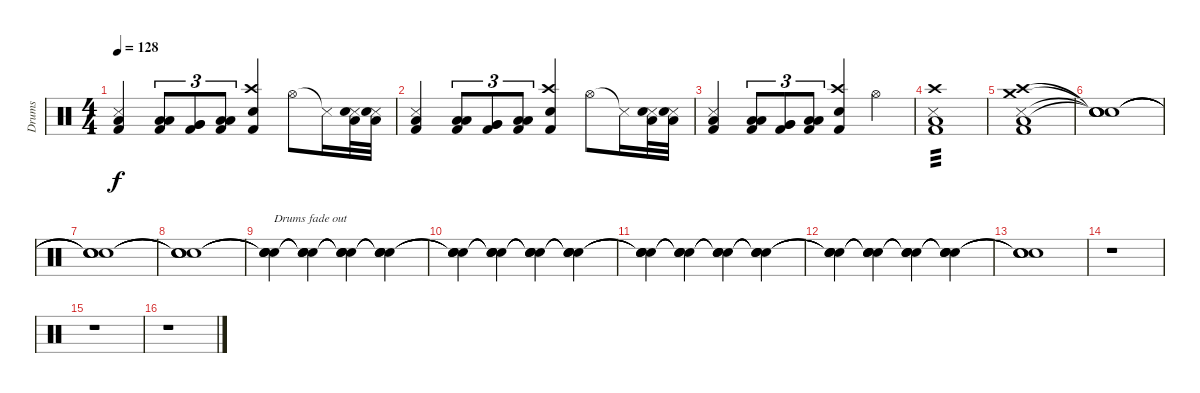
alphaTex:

\track ("Drums" "Drums") {instrument percussion}
\staff {score}
\articulation defaults
\ts (4 4)
\tempo 128
\clef neutral
\ks c
("Snare (side stick) 3" "Low Floor Tom (hit)" "Kick (hit) 2").4{dy f} ("Low Tom (hit)" "Low Tom (hit)" "Kick (hit) 2").8{tu (3 2)} ("Very Low Tom (hit)" "Very Low Tom (hit)" "Kick (hit) 2").8{tu (3 2)} ("Low Floor Tom (hit)" "Low Floor Tom (hit)" "Kick (hit) 2").8{tu (3 2)} ("Crash high (hit)" "Electric Snare (hit)" "Kick (hit) 2").4 "Hi-Hat (open)".8 "Snare (side stick) 3"{t}.16 ("Snare (side stick) 3" "Low Floor Tom (hit)" "Electric Snare (hit)").32 ("Snare (side stick) 3" "Low Floor Tom (hit)" "Electric Snare (hit)").32 |
("Snare (side stick) 3" "Low Floor Tom (hit)" "Kick (hit) 2").4 ("Low Tom (hit)" "Low Tom (hit)" "Kick (hit) 2").8{tu (3 2)} ("Very Low Tom (hit)" "Very Low Tom (hit)" "Kick (hit) 2").8{tu (3 2)} ("Low Floor Tom (hit)" "Low Floor Tom (hit)" "Kick (hit) 2").8{tu (3 2)} ("Crash high (hit)" "Electric Snare (hit)" "Kick (hit) 2").4 "Hi-Hat (open)".8 "Snare (side stick) 3"{t}.16 ("Snare (side stick) 3" "Low Floor Tom (hit)" "Electric Snare (hit)").32 ("Snare (side stick) 3" "Low Floor Tom (hit)" "Electric Snare (hit)").32 |
("Snare (side stick) 3" "Low Floor Tom (hit)" "Kick (hit) 2").4 ("Low Tom (hit)" "Low Tom (hit)" "Kick (hit) 2").8{tu (3 2)} ("Very Low Tom (hit)" "Very Low Tom (hit)" "Kick (hit) 2").8{tu (3 2)} ("Low Floor Tom (hit)" "Low Floor Tom (hit)" "Kick (hit) 2").8{tu (3 2)} ("Crash high (hit)" "Electric Snare (hit)" "Kick (hit) 2").4 "Hi-Hat (open)".4 |
("Crash high (hit)" "Snare (side stick) 3" "Low Floor Tom (hit)" "Kick (hit) 2").1{tp 3} |
("Crash high (hit)" "Crash medium (hit)" "Snare (side stick) 3" "Low Floor Tom (hit)" "Kick (hit) 2").1 |
("Snare (hit)"{t} "Snare (hit)"{t} "Snare (hit)"{t} "Snare (hit)"{t}).1 |
("Snare (hit)"{t} "Snare (hit)"{t} "Snare (hit)"{t} "Snare (hit)"{t}).1 |
("Snare (hit)"{t} "Snare (hit)"{t} "Snare (hit)"{t} "Snare (hit)"{t}).1 |
("Snare (hit)"{t} "Snare (hit)"{t} "Snare (hit)"{t} "Snare (hit)"{t}).4{txt "Drums fade out" volume 16} ("Snare (hit)"{t} "Snare (hit)"{t} "Snare (hit)"{t} "Snare (hit)"{t}).4{volume 15} ("Snare (hit)"{t} "Snare (hit)"{t} "Snare (hit)"{t} "Snare (hit)"{t}).4{volume 14} ("Snare (hit)"{t} "Snare (hit)"{t} "Snare (hit)"{t} "Snare (hit)"{t}).4{volume 13} |
("Snare (hit)"{t} "Snare (hit)"{t} "Snare (hit)"{t} "Snare (hit)"{t}).4{volume 12} ("Snare (hit)"{t} "Snare (hit)"{t} "Snare (hit)"{t} "Snare (hit)"{t}).4{volume 11} ("Snare (hit)"{t} "Snare (hit)"{t} "Snare (hit)"{t} "Snare (hit)"{t}).4{volume 10} ("Snare (hit)"{t} "Snare (hit)"{t} "Snare (hit)"{t} "Snare (hit)"{t}).4{volume 9} |
("Snare (hit)"{t} "Snare (hit)"{t} "Snare (hit)"{t} "Snare (hit)"{t}).4{volume 8} ("Snare (hit)"{t} "Snare (hit)"{t} "Snare (hit)"{t} "Snare (hit)"{t}).4{volume 7} ("Snare (hit)"{t} "Snare (hit)"{t} "Snare (hit)"{t} "Snare (hit)"{t}).4{volume 6} ("Snare (hit)"{t} "Snare (hit)"{t} "Snare (hit)"{t} "Snare (hit)"{t}).4{volume 5} |
("Snare (hit)"{t} "Snare (hit)"{t} "Snare (hit)"{t} "Snare (hit)"{t}).4{volume 4} ("Snare (hit)"{t} "Snare (hit)"{t} "Snare (hit)"{t} "Snare (hit)"{t}).4{volume 3} ("Snare (hit)"{t} "Snare (hit)"{t} "Snare (hit)"{t} "Snare (hit)"{t}).4{volume 2} ("Snare (hit)"{t} "Snare (hit)"{t} "Snare (hit)"{t} "Snare (hit)"{t}).4{volume 1} |
("Snare (hit)"{t} "Snare (hit)"{t} "Snare (hit)"{t} "Snare (hit)"{t}).1{volume 0} |
r.1 |
r.1 |
r.1
